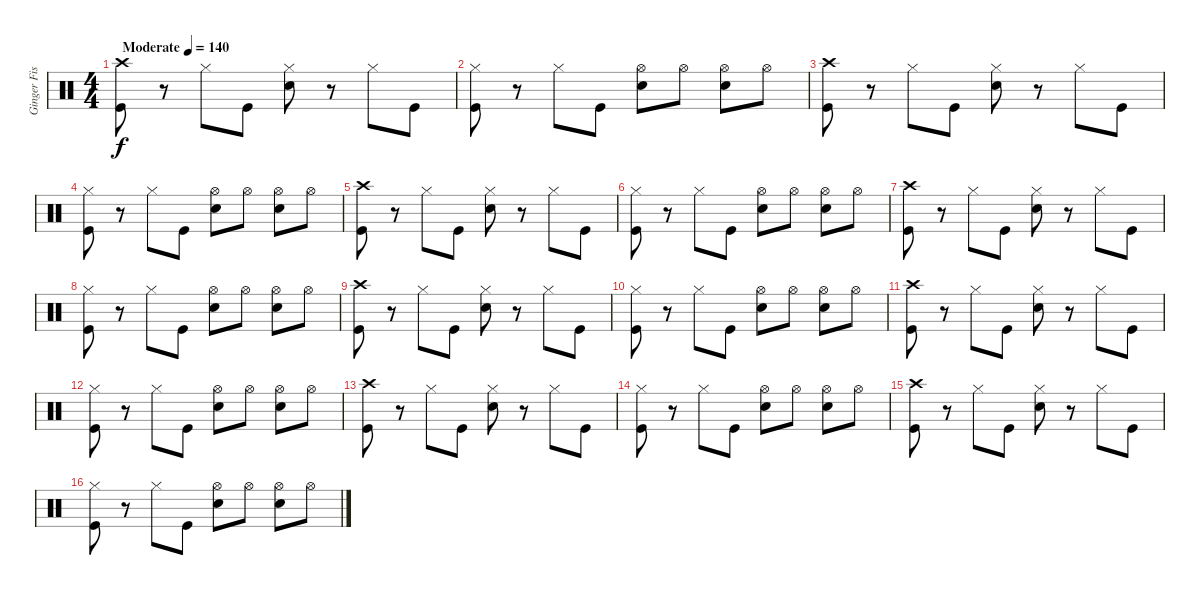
\track ("Ginger Fish" "Ginger Fis") {instrument percussion}
\staff {score}
\articulation defaults
\ts (4 4)
\tempo (140 "Moderate")
\clef neutral
\ks c
("Crash high (hit)" "Kick (hit)").8{dy f} r.8 "Hi-Hat (closed)".8 "Kick (hit)".8 ("Hi-Hat (closed)" "Electric Snare (hit)").8 r.8 "Hi-Hat (closed)".8 "Kick (hit)".8 |
("Hi-Hat (closed)" "Kick (hit)").8 r.8 "Hi-Hat (closed)".8 "Kick (hit)".8 ("Hi-Hat (open)" "Electric Snare (hit)").8 "Hi-Hat (open)".8 ("Hi-Hat (open)" "Electric Snare (hit)").8 "Hi-Hat (open)".8 |
("Crash high (hit)" "Kick (hit)").8 r.8 "Hi-Hat (closed)".8 "Kick (hit)".8 ("Hi-Hat (closed)" "Electric Snare (hit)").8 r.8 "Hi-Hat (closed)".8 "Kick (hit)".8 |
("Hi-Hat (closed)" "Kick (hit)").8 r.8 "Hi-Hat (closed)".8 "Kick (hit)".8 ("Hi-Hat (open)" "Electric Snare (hit)").8 "Hi-Hat (open)".8 ("Hi-Hat (open)" "Electric Snare (hit)").8 "Hi-Hat (open)".8 |
("Crash high (hit)" "Kick (hit)").8 r.8 "Hi-Hat (closed)".8 "Kick (hit)".8 ("Hi-Hat (closed)" "Electric Snare (hit)").8 r.8 "Hi-Hat (closed)".8 "Kick (hit)".8 |
("Hi-Hat (closed)" "Kick (hit)").8 r.8 "Hi-Hat (closed)".8 "Kick (hit)".8 ("Hi-Hat (open)" "Electric Snare (hit)").8 "Hi-Hat (open)".8 ("Hi-Hat (open)" "Electric Snare (hit)").8 "Hi-Hat (open)".8 |
("Crash high (hit)" "Kick (hit)").8 r.8 "Hi-Hat (closed)".8 "Kick (hit)".8 ("Hi-Hat (closed)" "Electric Snare (hit)").8 r.8 "Hi-Hat (closed)".8 "Kick (hit)".8 |
("Hi-Hat (closed)" "Kick (hit)").8 r.8 "Hi-Hat (closed)".8 "Kick (hit)".8 ("Hi-Hat (open)" "Electric Snare (hit)").8 "Hi-Hat (open)".8 ("Hi-Hat (open)" "Electric Snare (hit)").8 "Hi-Hat (open)".8 |
("Crash high (hit)" "Kick (hit)").8 r.8 "Hi-Hat (closed)".8 "Kick (hit)".8 ("Hi-Hat (closed)" "Electric Snare (hit)").8 r.8 "Hi-Hat (closed)".8 "Kick (hit)".8 |
("Hi-Hat (closed)" "Kick (hit)").8 r.8 "Hi-Hat (closed)".8 "Kick (hit)".8 ("Hi-Hat (open)" "Electric Snare (hit)").8 "Hi-Hat (open)".8 ("Hi-Hat (open)" "Electric Snare (hit)").8 "Hi-Hat (open)".8 |
("Crash high (hit)" "Kick (hit)").8 r.8 "Hi-Hat (closed)".8 "Kick (hit)".8 ("Hi-Hat (closed)" "Electric Snare (hit)").8 r.8 "Hi-Hat (closed)".8 "Kick (hit)".8 |
("Hi-Hat (closed)" "Kick (hit)").8 r.8 "Hi-Hat (closed)".8 "Kick (hit)".8 ("Hi-Hat (open)" "Electric Snare (hit)").8 "Hi-Hat (open)".8 ("Hi-Hat (open)" "Electric Snare (hit)").8 "Hi-Hat (open)".8 |
("Crash high (hit)" "Kick (hit)").8 r.8 "Hi-Hat (closed)".8 "Kick (hit)".8 ("Hi-Hat (closed)" "Electric Snare (hit)").8 r.8 "Hi-Hat (closed)".8 "Kick (hit)".8 |
("Hi-Hat (closed)" "Kick (hit)").8 r.8 "Hi-Hat (closed)".8 "Kick (hit)".8 ("Hi-Hat (open)" "Electric Snare (hit)").8 "Hi-Hat (open)".8 ("Hi-Hat (open)" "Electric Snare (hit)").8 "Hi-Hat (open)".8 |
("Crash high (hit)" "Kick (hit)").8 r.8 "Hi-Hat (closed)".8 "Kick (hit)".8 ("Hi-Hat (closed)" "Electric Snare (hit)").8 r.8 "Hi-Hat (closed)".8 "Kick (hit)".8 |
("Hi-Hat (closed)" "Kick (hit)").8 r.8 "Hi-Hat (closed)".8 "Kick (hit)".8 ("Hi-Hat (open)" "Electric Snare (hit)").8 "Hi-Hat (open)".8 ("Hi-Hat (open)" "Electric Snare (hit)").8 "Hi-Hat (open)".8
